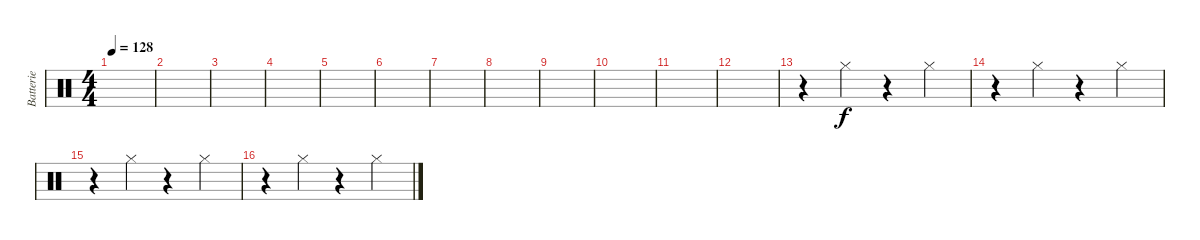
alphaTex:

\track ("Batterie" "Batterie") {instrument percussion}
\staff {score}
\articulation defaults
\ts (4 4)
\tempo 128
\clef neutral
\ks c
|
|
|
|
|
|
|
|
|
|
|
|
r.4 "Hi-Hat (closed)".4 r.4 "Hi-Hat (closed)".4 |
r.4 "Hi-Hat (closed)".4 r.4 "Hi-Hat (closed)".4 |
r.4 "Hi-Hat (closed)".4 r.4 "Hi-Hat (closed)".4 |
r.4 "Hi-Hat (closed)".4 r.4 "Hi-Hat (closed)".4
